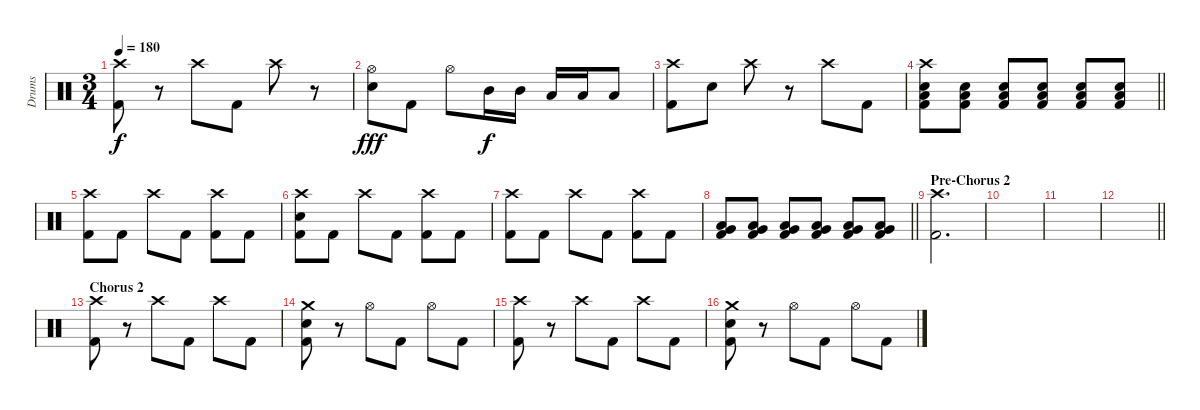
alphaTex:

\track ("Drums" "Drums") {instrument percussion}
\staff {score}
\articulation defaults
\ts (3 4)
\tempo 180
\clef neutral
\ks c
("Crash high (hit)" "Kick (hit) 2").8{dy f} r.8 "Crash high (hit)".8 "Kick (hit) 2".8 "Crash high (hit)".8 r.8 |
("Hi-Hat (open)" "Electric Snare (hit)").8{dy fff} "Kick (hit) 2".8 "Hi-Hat (open)".8 "Mid Tom (hit)".16{dy f} "Mid Tom (hit)".16 "Low Tom (hit)".16 "Low Tom (hit)".16 "Low Floor Tom (hit)".8 |
("Crash high (hit)" "Kick (hit) 2").8 "Electric Snare (hit)".8 "Crash high (hit)".8 r.8 "Crash high (hit)".8 "Kick (hit) 2".8 |
\barLineRight lightlight
("Crash high (hit)" "Electric Snare (hit)" "Low Floor Tom (hit)" "Kick (hit) 2").8 ("Electric Snare (hit)" "Low Floor Tom (hit)" "Kick (hit) 2").8 ("Electric Snare (hit)" "Low Floor Tom (hit)" "Kick (hit) 2").8 ("Electric Snare (hit)" "Low Floor Tom (hit)" "Kick (hit) 2").8 ("Electric Snare (hit)" "Low Floor Tom (hit)" "Kick (hit) 2").8 ("Electric Snare (hit)" "Low Floor Tom (hit)" "Kick (hit) 2").8 |
("Crash high (hit)" "Kick (hit) 2").8 "Kick (hit) 2".8 "Crash high (hit)".8 "Kick (hit) 2".8 ("Crash high (hit)" "Kick (hit) 2").8 "Kick (hit) 2".8 |
("Crash high (hit)" "Electric Snare (hit)" "Kick (hit) 2").8 "Kick (hit) 2".8 "Crash high (hit)".8 "Kick (hit) 2".8 ("Crash high (hit)" "Kick (hit) 2").8 "Kick (hit) 2".8 |
("Crash high (hit)" "Kick (hit) 2").8 "Kick (hit) 2".8 "Crash high (hit)".8 "Kick (hit) 2".8 ("Crash high (hit)" "Kick (hit) 2").8 "Kick (hit) 2".8 |
\barLineRight lightlight
("Low Floor Tom (hit)" "Very Low Tom (hit)" "Kick (hit) 2").8 ("Low Floor Tom (hit)" "Very Low Tom (hit)" "Kick (hit) 2").8 ("Low Floor Tom (hit)" "Very Low Tom (hit)" "Kick (hit) 2").8 ("Low Floor Tom (hit)" "Very Low Tom (hit)" "Kick (hit) 2").8 ("Low Floor Tom (hit)" "Very Low Tom (hit)" "Kick (hit) 2").8 ("Low Floor Tom (hit)" "Very Low Tom (hit)" "Kick (hit) 2").8 |
\section ("" "Pre-Chorus 2")
("Crash high (hit)" "Kick (hit) 2").2{d} |
|
|
\barLineRight lightlight
|
\section ("" "Chorus 2")
("Crash high (hit)" "Kick (hit) 2").8 r.8 "Crash high (hit)".8 "Kick (hit) 2".8 "Crash high (hit)".8 "Kick (hit) 2".8 |
("Crash medium (hit)" "Electric Snare (hit)" "Kick (hit) 2").8 r.8 "Hi-Hat (open)".8 "Kick (hit) 2".8 "Hi-Hat (open)".8 "Kick (hit) 2".8 |
("Crash high (hit)" "Kick (hit) 2").8 r.8 "Crash high (hit)".8 "Kick (hit) 2".8 "Crash high (hit)".8 "Kick (hit) 2".8 |
("Crash medium (hit)" "Electric Snare (hit)" "Kick (hit) 2").8 r.8 "Hi-Hat (open)".8 "Kick (hit) 2".8 "Hi-Hat (open)".8 "Kick (hit) 2".8
